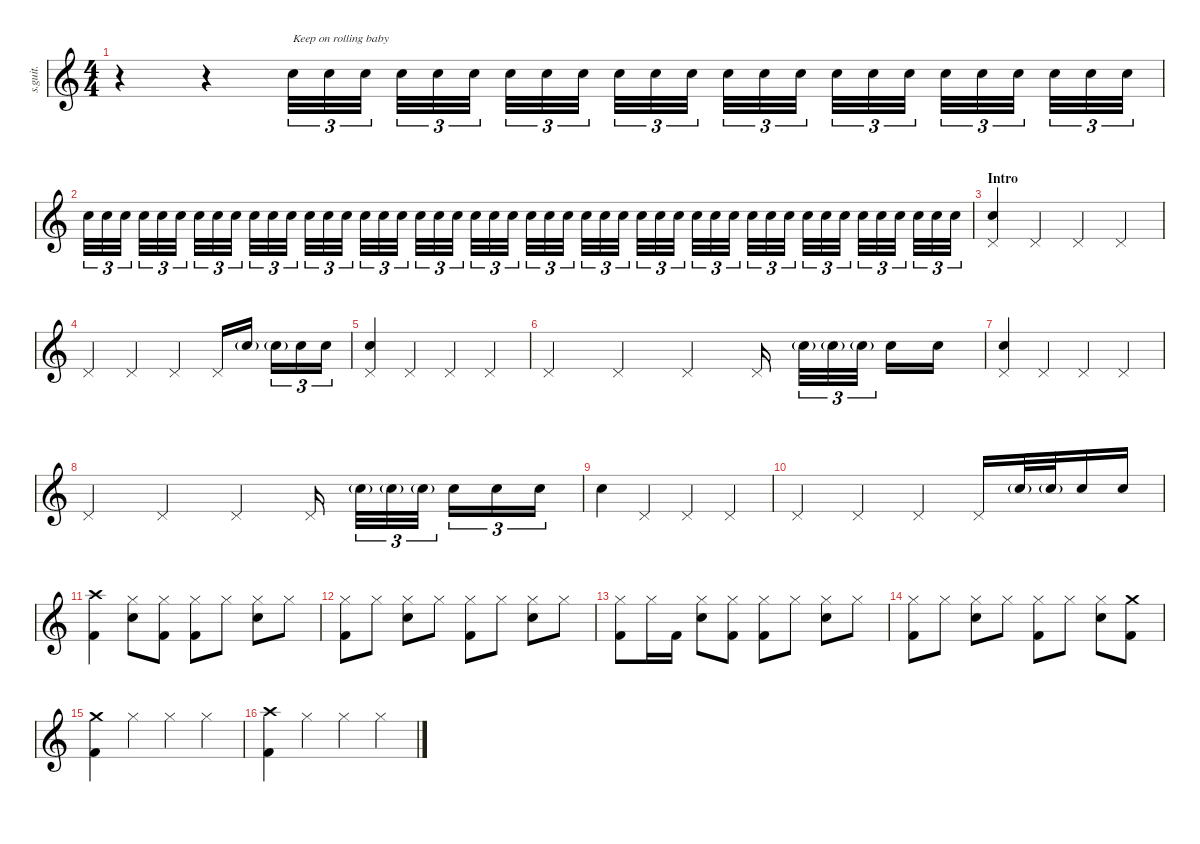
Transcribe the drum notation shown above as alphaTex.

\defaultSystemsLayout 4
\hideDynamics
\bracketExtendMode nobrackets
\track ("Lars Ulrich" "s.guit.") {instrument percussion}
\staff {score}
\articulation defaults
\ts (4 4)
\beaming (8 2 2 2 2)
\tempo (69 hide)
\clef g2
\ks c
r.4{dy ppp} r.4 "Snare (hit) 2".32{tu (3 2) txt "Keep on rolling baby" lyrics (0 "") lyrics (1 "") lyrics (2 "") lyrics (3 "") lyrics (4 "")} "Snare (hit) 2".32{tu (3 2) lyrics (0 "") lyrics (1 "") lyrics (2 "") lyrics (3 "") lyrics (4 "")} "Snare (hit) 2".32{tu (3 2) lyrics (0 "") lyrics (1 "") lyrics (2 "") lyrics (3 "") lyrics (4 "")} "Snare (hit) 2".32{tu (3 2) lyrics (0 "") lyrics (1 "") lyrics (2 "") lyrics (3 "") lyrics (4 "")} "Snare (hit) 2".32{tu (3 2) lyrics (0 "") lyrics (1 "") lyrics (2 "") lyrics (3 "") lyrics (4 "")} "Snare (hit) 2".32{tu (3 2) lyrics (0 "") lyrics (1 "") lyrics (2 "") lyrics (3 "") lyrics (4 "")} "Snare (hit) 2".32{tu (3 2) lyrics (0 "") lyrics (1 "") lyrics (2 "") lyrics (3 "") lyrics (4 "")} "Snare (hit) 2".32{tu (3 2) lyrics (0 "") lyrics (1 "") lyrics (2 "") lyrics (3 "") lyrics (4 "")} "Snare (hit) 2".32{tu (3 2) lyrics (0 "") lyrics (1 "") lyrics (2 "") lyrics (3 "") lyrics (4 "")} "Snare (hit) 2".32{tu (3 2) lyrics (0 "") lyrics (1 "") lyrics (2 "") lyrics (3 "") lyrics (4 "") dy pp} "Snare (hit) 2".32{tu (3 2) lyrics (0 "") lyrics (1 "") lyrics (2 "") lyrics (3 "") lyrics (4 "")} "Snare (hit) 2".32{tu (3 2) lyrics (0 "") lyrics (1 "") lyrics (2 "") lyrics (3 "") lyrics (4 "")} "Snare (hit) 2".32{tu (3 2) lyrics (0 "") lyrics (1 "") lyrics (2 "") lyrics (3 "") lyrics (4 "")} "Snare (hit) 2".32{tu (3 2) lyrics (0 "") lyrics (1 "") lyrics (2 "") lyrics (3 "") lyrics (4 "")} "Snare (hit) 2".32{tu (3 2) lyrics (0 "") lyrics (1 "") lyrics (2 "") lyrics (3 "") lyrics (4 "")} "Snare (hit) 2".32{tu (3 2) lyrics (0 "") lyrics (1 "") lyrics (2 "") lyrics (3 "") lyrics (4 "")} "Snare (hit) 2".32{tu (3 2) lyrics (0 "") lyrics (1 "") lyrics (2 "") lyrics (3 "") lyrics (4 "")} "Snare (hit) 2".32{tu (3 2) lyrics (0 "") lyrics (1 "") lyrics (2 "") lyrics (3 "") lyrics (4 "")} "Snare (hit) 2".32{tu (3 2) lyrics (0 "") lyrics (1 "") lyrics (2 "") lyrics (3 "") lyrics (4 "")} "Snare (hit) 2".32{tu (3 2) lyrics (0 "") lyrics (1 "") lyrics (2 "") lyrics (3 "") lyrics (4 "") dy p} "Snare (hit) 2".32{tu (3 2) lyrics (0 "") lyrics (1 "") lyrics (2 "") lyrics (3 "") lyrics (4 "")} "Snare (hit) 2".32{tu (3 2) lyrics (0 "") lyrics (1 "") lyrics (2 "") lyrics (3 "") lyrics (4 "")} "Snare (hit) 2".32{tu (3 2) lyrics (0 "") lyrics (1 "") lyrics (2 "") lyrics (3 "") lyrics (4 "")} "Snare (hit) 2".32{tu (3 2) lyrics (0 "") lyrics (1 "") lyrics (2 "") lyrics (3 "") lyrics (4 "")} |
"Snare (hit) 2".32{tu (3 2) lyrics (0 "") lyrics (1 "") lyrics (2 "") lyrics (3 "") lyrics (4 "")} "Snare (hit) 2".32{tu (3 2) lyrics (0 "") lyrics (1 "") lyrics (2 "") lyrics (3 "") lyrics (4 "")} "Snare (hit) 2".32{tu (3 2) lyrics (0 "") lyrics (1 "") lyrics (2 "") lyrics (3 "") lyrics (4 "")} "Snare (hit) 2".32{tu (3 2) lyrics (0 "") lyrics (1 "") lyrics (2 "") lyrics (3 "") lyrics (4 "")} "Snare (hit) 2".32{tu (3 2) lyrics (0 "") lyrics (1 "") lyrics (2 "") lyrics (3 "") lyrics (4 "")} "Snare (hit) 2".32{tu (3 2) lyrics (0 "") lyrics (1 "") lyrics (2 "") lyrics (3 "") lyrics (4 "")} "Snare (hit) 2".32{tu (3 2) lyrics (0 "") lyrics (1 "") lyrics (2 "") lyrics (3 "") lyrics (4 "")} "Snare (hit) 2".32{tu (3 2) lyrics (0 "") lyrics (1 "") lyrics (2 "") lyrics (3 "") lyrics (4 "") dy mp} "Snare (hit) 2".32{tu (3 2) lyrics (0 "") lyrics (1 "") lyrics (2 "") lyrics (3 "") lyrics (4 "")} "Snare (hit) 2".32{tu (3 2) lyrics (0 "") lyrics (1 "") lyrics (2 "") lyrics (3 "") lyrics (4 "")} "Snare (hit) 2".32{tu (3 2) lyrics (0 "") lyrics (1 "") lyrics (2 "") lyrics (3 "") lyrics (4 "")} "Snare (hit) 2".32{tu (3 2) lyrics (0 "") lyrics (1 "") lyrics (2 "") lyrics (3 "") lyrics (4 "")} "Snare (hit) 2".32{tu (3 2) lyrics (0 "") lyrics (1 "") lyrics (2 "") lyrics (3 "") lyrics (4 "")} "Snare (hit) 2".32{tu (3 2) lyrics (0 "") lyrics (1 "") lyrics (2 "") lyrics (3 "") lyrics (4 "")} "Snare (hit) 2".32{tu (3 2) lyrics (0 "") lyrics (1 "") lyrics (2 "") lyrics (3 "") lyrics (4 "")} "Snare (hit) 2".32{tu (3 2) lyrics (0 "") lyrics (1 "") lyrics (2 "") lyrics (3 "") lyrics (4 "")} "Snare (hit) 2".32{tu (3 2) lyrics (0 "") lyrics (1 "") lyrics (2 "") lyrics (3 "") lyrics (4 "")} "Snare (hit) 2".32{tu (3 2) lyrics (0 "") lyrics (1 "") lyrics (2 "") lyrics (3 "") lyrics (4 "")} "Snare (hit) 2".32{tu (3 2) lyrics (0 "") lyrics (1 "") lyrics (2 "") lyrics (3 "") lyrics (4 "")} "Snare (hit) 2".32{tu (3 2) lyrics (0 "") lyrics (1 "") lyrics (2 "") lyrics (3 "") lyrics (4 "")} "Snare (hit) 2".32{tu (3 2) lyrics (0 "") lyrics (1 "") lyrics (2 "") lyrics (3 "") lyrics (4 "")} "Snare (hit) 2".32{tu (3 2) lyrics (0 "") lyrics (1 "") lyrics (2 "") lyrics (3 "") lyrics (4 "") dy mf} "Snare (hit) 2".32{tu (3 2) lyrics (0 "") lyrics (1 "") lyrics (2 "") lyrics (3 "") lyrics (4 "")} "Snare (hit) 2".32{tu (3 2) lyrics (0 "") lyrics (1 "") lyrics (2 "") lyrics (3 "") lyrics (4 "")} "Snare (hit) 2".32{tu (3 2) lyrics (0 "") lyrics (1 "") lyrics (2 "") lyrics (3 "") lyrics (4 "")} "Snare (hit) 2".32{tu (3 2) lyrics (0 "") lyrics (1 "") lyrics (2 "") lyrics (3 "") lyrics (4 "")} "Snare (hit) 2".32{tu (3 2) lyrics (0 "") lyrics (1 "") lyrics (2 "") lyrics (3 "") lyrics (4 "")} "Snare (hit) 2".32{tu (3 2) lyrics (0 "") lyrics (1 "") lyrics (2 "") lyrics (3 "") lyrics (4 "")} "Snare (hit) 2".32{tu (3 2) lyrics (0 "") lyrics (1 "") lyrics (2 "") lyrics (3 "") lyrics (4 "")} "Snare (hit) 2".32{tu (3 2) lyrics (0 "") lyrics (1 "") lyrics (2 "") lyrics (3 "") lyrics (4 "")} "Snare (hit) 2".32{tu (3 2) lyrics (0 "") lyrics (1 "") lyrics (2 "") lyrics (3 "") lyrics (4 "")} "Snare (hit) 2".32{tu (3 2) lyrics (0 "") lyrics (1 "") lyrics (2 "") lyrics (3 "") lyrics (4 "")} "Snare (hit) 2".32{tu (3 2) lyrics (0 "") lyrics (1 "") lyrics (2 "") lyrics (3 "") lyrics (4 "")} "Snare (hit) 2".32{tu (3 2) lyrics (0 "") lyrics (1 "") lyrics (2 "") lyrics (3 "") lyrics (4 "") dy ff} "Snare (hit) 2".32{tu (3 2) lyrics (0 "") lyrics (1 "") lyrics (2 "") lyrics (3 "") lyrics (4 "")} "Snare (hit) 2".32{tu (3 2) lyrics (0 "") lyrics (1 "") lyrics (2 "") lyrics (3 "") lyrics (4 "")} "Snare (hit) 2".32{tu (3 2) lyrics (0 "") lyrics (1 "") lyrics (2 "") lyrics (3 "") lyrics (4 "")} "Snare (hit) 2".32{tu (3 2) lyrics (0 "") lyrics (1 "") lyrics (2 "") lyrics (3 "") lyrics (4 "")} "Snare (hit) 2".32{tu (3 2) lyrics (0 "") lyrics (1 "") lyrics (2 "") lyrics (3 "") lyrics (4 "")} "Snare (hit) 2".32{tu (3 2) lyrics (0 "") lyrics (1 "") lyrics (2 "") lyrics (3 "") lyrics (4 "")} "Snare (hit) 2".32{tu (3 2) lyrics (0 "") lyrics (1 "") lyrics (2 "") lyrics (3 "") lyrics (4 "")} "Snare (hit) 2".32{tu (3 2) lyrics (0 "") lyrics (1 "") lyrics (2 "") lyrics (3 "") lyrics (4 "")} "Snare (hit) 2".32{tu (3 2) lyrics (0 "") lyrics (1 "") lyrics (2 "") lyrics (3 "") lyrics (4 "")} "Snare (hit) 2".32{tu (3 2) lyrics (0 "") lyrics (1 "") lyrics (2 "") lyrics (3 "") lyrics (4 "")} "Snare (hit) 2".32{tu (3 2) lyrics (0 "") lyrics (1 "") lyrics (2 "") lyrics (3 "") lyrics (4 "")} "Snare (hit) 2".32{tu (3 2) lyrics (0 "") lyrics (1 "") lyrics (2 "") lyrics (3 "") lyrics (4 "")} "Snare (hit) 2".32{tu (3 2) lyrics (0 "") lyrics (1 "") lyrics (2 "") lyrics (3 "") lyrics (4 "")} "Snare (hit) 2".32{tu (3 2) lyrics (0 "") lyrics (1 "") lyrics (2 "") lyrics (3 "") lyrics (4 "")} |
\section ("" "Intro")
("Pedal Hi-Hat (hit)" "Snare (hit) 2").4{lyrics (0 "") lyrics (1 "") lyrics (2 "") lyrics (3 "") lyrics (4 "") dy p} "Pedal Hi-Hat (hit)".4{lyrics (0 "") lyrics (1 "") lyrics (2 "") lyrics (3 "") lyrics (4 "")} "Pedal Hi-Hat (hit)".4{lyrics (0 "") lyrics (1 "") lyrics (2 "") lyrics (3 "") lyrics (4 "")} "Pedal Hi-Hat (hit)".4{lyrics (0 "") lyrics (1 "") lyrics (2 "") lyrics (3 "") lyrics (4 "")} |
"Pedal Hi-Hat (hit)".4{lyrics (0 "") lyrics (1 "") lyrics (2 "") lyrics (3 "") lyrics (4 "")} "Pedal Hi-Hat (hit)".4{lyrics (0 "") lyrics (1 "") lyrics (2 "") lyrics (3 "") lyrics (4 "")} "Pedal Hi-Hat (hit)".4{lyrics (0 "") lyrics (1 "") lyrics (2 "") lyrics (3 "") lyrics (4 "")} "Pedal Hi-Hat (hit)".16{lyrics (0 "") lyrics (1 "") lyrics (2 "") lyrics (3 "") lyrics (4 "")} "Snare (hit) 2"{g}.16{lyrics (0 "") lyrics (1 "") lyrics (2 "") lyrics (3 "") lyrics (4 "") dy mp} "Snare (hit) 2"{g}.16{tu (3 2) lyrics (0 "") lyrics (1 "") lyrics (2 "") lyrics (3 "") lyrics (4 "")} "Snare (hit) 2".16{tu (3 2) lyrics (0 "") lyrics (1 "") lyrics (2 "") lyrics (3 "") lyrics (4 "") dy p} "Snare (hit) 2".16{tu (3 2) lyrics (0 "") lyrics (1 "") lyrics (2 "") lyrics (3 "") lyrics (4 "")} |
("Pedal Hi-Hat (hit)" "Snare (hit) 2").4{lyrics (0 "") lyrics (1 "") lyrics (2 "") lyrics (3 "") lyrics (4 "")} "Pedal Hi-Hat (hit)".4{lyrics (0 "") lyrics (1 "") lyrics (2 "") lyrics (3 "") lyrics (4 "")} "Pedal Hi-Hat (hit)".4{lyrics (0 "") lyrics (1 "") lyrics (2 "") lyrics (3 "") lyrics (4 "")} "Pedal Hi-Hat (hit)".4{lyrics (0 "") lyrics (1 "") lyrics (2 "") lyrics (3 "") lyrics (4 "")} |
"Pedal Hi-Hat (hit)".4{lyrics (0 "") lyrics (1 "") lyrics (2 "") lyrics (3 "") lyrics (4 "")} "Pedal Hi-Hat (hit)".4{lyrics (0 "") lyrics (1 "") lyrics (2 "") lyrics (3 "") lyrics (4 "")} "Pedal Hi-Hat (hit)".4{lyrics (0 "") lyrics (1 "") lyrics (2 "") lyrics (3 "") lyrics (4 "")} "Pedal Hi-Hat (hit)".16{lyrics (0 "") lyrics (1 "") lyrics (2 "") lyrics (3 "") lyrics (4 "")} "Snare (hit) 2"{g}.32{tu (3 2) lyrics (0 "") lyrics (1 "") lyrics (2 "") lyrics (3 "") lyrics (4 "") dy mp} "Snare (hit) 2"{g}.32{tu (3 2) lyrics (0 "") lyrics (1 "") lyrics (2 "") lyrics (3 "") lyrics (4 "")} "Snare (hit) 2"{g}.32{tu (3 2) lyrics (0 "") lyrics (1 "") lyrics (2 "") lyrics (3 "") lyrics (4 "")} "Snare (hit) 2".16{lyrics (0 "") lyrics (1 "") lyrics (2 "") lyrics (3 "") lyrics (4 "") dy p} "Snare (hit) 2".16{lyrics (0 "") lyrics (1 "") lyrics (2 "") lyrics (3 "") lyrics (4 "")} |
("Pedal Hi-Hat (hit)" "Snare (hit) 2").4{lyrics (0 "") lyrics (1 "") lyrics (2 "") lyrics (3 "") lyrics (4 "")} "Pedal Hi-Hat (hit)".4{lyrics (0 "") lyrics (1 "") lyrics (2 "") lyrics (3 "") lyrics (4 "")} "Pedal Hi-Hat (hit)".4{lyrics (0 "") lyrics (1 "") lyrics (2 "") lyrics (3 "") lyrics (4 "")} "Pedal Hi-Hat (hit)".4{lyrics (0 "") lyrics (1 "") lyrics (2 "") lyrics (3 "") lyrics (4 "")} |
"Pedal Hi-Hat (hit)".4{lyrics (0 "") lyrics (1 "") lyrics (2 "") lyrics (3 "") lyrics (4 "")} "Pedal Hi-Hat (hit)".4{lyrics (0 "") lyrics (1 "") lyrics (2 "") lyrics (3 "") lyrics (4 "")} "Pedal Hi-Hat (hit)".4{lyrics (0 "") lyrics (1 "") lyrics (2 "") lyrics (3 "") lyrics (4 "")} "Pedal Hi-Hat (hit)".16{lyrics (0 "") lyrics (1 "") lyrics (2 "") lyrics (3 "") lyrics (4 "")} "Snare (hit) 2"{g}.32{tu (3 2) lyrics (0 "") lyrics (1 "") lyrics (2 "") lyrics (3 "") lyrics (4 "") dy mp} "Snare (hit) 2"{g}.32{tu (3 2) lyrics (0 "") lyrics (1 "") lyrics (2 "") lyrics (3 "") lyrics (4 "")} "Snare (hit) 2"{g}.32{tu (3 2) lyrics (0 "") lyrics (1 "") lyrics (2 "") lyrics (3 "") lyrics (4 "")} "Snare (hit) 2".16{tu (3 2) lyrics (0 "") lyrics (1 "") lyrics (2 "") lyrics (3 "") lyrics (4 "") dy p} "Snare (hit) 2".16{tu (3 2) lyrics (0 "") lyrics (1 "") lyrics (2 "") lyrics (3 "") lyrics (4 "")} "Snare (hit) 2".16{tu (3 2) lyrics (0 "") lyrics (1 "") lyrics (2 "") lyrics (3 "") lyrics (4 "")} |
"Snare (hit) 2".4{lyrics (0 "") lyrics (1 "") lyrics (2 "") lyrics (3 "") lyrics (4 "")} "Pedal Hi-Hat (hit)".4{lyrics (0 "") lyrics (1 "") lyrics (2 "") lyrics (3 "") lyrics (4 "")} "Pedal Hi-Hat (hit)".4{lyrics (0 "") lyrics (1 "") lyrics (2 "") lyrics (3 "") lyrics (4 "")} "Pedal Hi-Hat (hit)".4{lyrics (0 "") lyrics (1 "") lyrics (2 "") lyrics (3 "") lyrics (4 "")} |
"Pedal Hi-Hat (hit)".4{lyrics (0 "") lyrics (1 "") lyrics (2 "") lyrics (3 "") lyrics (4 "")} "Pedal Hi-Hat (hit)".4{lyrics (0 "") lyrics (1 "") lyrics (2 "") lyrics (3 "") lyrics (4 "")} "Pedal Hi-Hat (hit)".4{lyrics (0 "") lyrics (1 "") lyrics (2 "") lyrics (3 "") lyrics (4 "")} "Pedal Hi-Hat (hit)".16{lyrics (0 "") lyrics (1 "") lyrics (2 "") lyrics (3 "") lyrics (4 "")} "Snare (hit) 2"{g}.32{lyrics (0 "") lyrics (1 "") lyrics (2 "") lyrics (3 "") lyrics (4 "") dy mp} "Snare (hit) 2"{g}.32{lyrics (0 "") lyrics (1 "") lyrics (2 "") lyrics (3 "") lyrics (4 "")} "Snare (hit) 2".16{lyrics (0 "") lyrics (1 "") lyrics (2 "") lyrics (3 "") lyrics (4 "") dy p} "Snare (hit) 2".16{lyrics (0 "") lyrics (1 "") lyrics (2 "") lyrics (3 "") lyrics (4 "")} |
("Crash high (hit)" "Kick (hit) 2").4{lyrics (0 "") lyrics (1 "") lyrics (2 "") lyrics (3 "") lyrics (4 "") dy fff} ("Hi-Hat (closed)" "Snare (hit) 2").8{lyrics (0 "") lyrics (1 "") lyrics (2 "") lyrics (3 "") lyrics (4 "") dy f} ("Hi-Hat (closed)" "Kick (hit) 2").8{lyrics (0 "") lyrics (1 "") lyrics (2 "") lyrics (3 "") lyrics (4 "")} ("Hi-Hat (closed)" "Kick (hit) 2").8{lyrics (0 "") lyrics (1 "") lyrics (2 "") lyrics (3 "") lyrics (4 "")} "Hi-Hat (closed)".8{lyrics (0 "") lyrics (1 "") lyrics (2 "") lyrics (3 "") lyrics (4 "")} ("Hi-Hat (closed)" "Snare (hit) 2").8{lyrics (0 "") lyrics (1 "") lyrics (2 "") lyrics (3 "") lyrics (4 "")} "Hi-Hat (closed)".8{lyrics (0 "") lyrics (1 "") lyrics (2 "") lyrics (3 "") lyrics (4 "")} |
("Hi-Hat (closed)" "Kick (hit) 2").8{lyrics (0 "") lyrics (1 "") lyrics (2 "") lyrics (3 "") lyrics (4 "")} "Hi-Hat (closed)".8{lyrics (0 "") lyrics (1 "") lyrics (2 "") lyrics (3 "") lyrics (4 "")} ("Hi-Hat (closed)" "Snare (hit) 2").8{lyrics (0 "") lyrics (1 "") lyrics (2 "") lyrics (3 "") lyrics (4 "")} "Hi-Hat (closed)".8{lyrics (0 "") lyrics (1 "") lyrics (2 "") lyrics (3 "") lyrics (4 "")} ("Hi-Hat (closed)" "Kick (hit) 2").8{lyrics (0 "") lyrics (1 "") lyrics (2 "") lyrics (3 "") lyrics (4 "")} "Hi-Hat (closed)".8{lyrics (0 "") lyrics (1 "") lyrics (2 "") lyrics (3 "") lyrics (4 "")} ("Hi-Hat (closed)" "Snare (hit) 2").8{lyrics (0 "") lyrics (1 "") lyrics (2 "") lyrics (3 "") lyrics (4 "")} "Hi-Hat (closed)".8{lyrics (0 "") lyrics (1 "") lyrics (2 "") lyrics (3 "") lyrics (4 "")} |
("Hi-Hat (closed)" "Kick (hit) 2").8{lyrics (0 "") lyrics (1 "") lyrics (2 "") lyrics (3 "") lyrics (4 "")} "Hi-Hat (closed)".16{lyrics (0 "") lyrics (1 "") lyrics (2 "") lyrics (3 "") lyrics (4 "")} "Kick (hit) 2".16{lyrics (0 "") lyrics (1 "") lyrics (2 "") lyrics (3 "") lyrics (4 "") dy fff} ("Hi-Hat (closed)" "Snare (hit) 2").8{lyrics (0 "") lyrics (1 "") lyrics (2 "") lyrics (3 "") lyrics (4 "") dy f} ("Hi-Hat (closed)" "Kick (hit) 2").8{lyrics (0 "") lyrics (1 "") lyrics (2 "") lyrics (3 "") lyrics (4 "")} ("Hi-Hat (closed)" "Kick (hit) 2").8{lyrics (0 "") lyrics (1 "") lyrics (2 "") lyrics (3 "") lyrics (4 "")} "Hi-Hat (closed)".8{lyrics (0 "") lyrics (1 "") lyrics (2 "") lyrics (3 "") lyrics (4 "")} ("Hi-Hat (closed)" "Snare (hit) 2").8{lyrics (0 "") lyrics (1 "") lyrics (2 "") lyrics (3 "") lyrics (4 "")} "Hi-Hat (closed)".8{lyrics (0 "") lyrics (1 "") lyrics (2 "") lyrics (3 "") lyrics (4 "")} |
("Hi-Hat (closed)" "Kick (hit) 2").8{lyrics (0 "") lyrics (1 "") lyrics (2 "") lyrics (3 "") lyrics (4 "")} "Hi-Hat (closed)".8{lyrics (0 "") lyrics (1 "") lyrics (2 "") lyrics (3 "") lyrics (4 "")} ("Hi-Hat (closed)" "Snare (hit) 2").8{lyrics (0 "") lyrics (1 "") lyrics (2 "") lyrics (3 "") lyrics (4 "")} "Hi-Hat (closed)".8{lyrics (0 "") lyrics (1 "") lyrics (2 "") lyrics (3 "") lyrics (4 "")} ("Hi-Hat (closed)" "Kick (hit) 2").8{lyrics (0 "") lyrics (1 "") lyrics (2 "") lyrics (3 "") lyrics (4 "")} "Hi-Hat (closed)".8{lyrics (0 "") lyrics (1 "") lyrics (2 "") lyrics (3 "") lyrics (4 "")} ("Hi-Hat (closed)" "Snare (hit) 2").8{lyrics (0 "") lyrics (1 "") lyrics (2 "") lyrics (3 "") lyrics (4 "")} ("Crash medium (hit)" "Kick (hit) 2").8{lyrics (0 "") lyrics (1 "") lyrics (2 "") lyrics (3 "") lyrics (4 "")} |
("Crash medium (hit)" "Kick (hit) 2").4{lyrics (0 "") lyrics (1 "") lyrics (2 "") lyrics (3 "") lyrics (4 "")} "Hi-Hat (closed)".4{lyrics (0 "") lyrics (1 "") lyrics (2 "") lyrics (3 "") lyrics (4 "") dy p} "Hi-Hat (closed)".4{lyrics (0 "") lyrics (1 "") lyrics (2 "") lyrics (3 "") lyrics (4 "")} "Hi-Hat (closed)".4{lyrics (0 "") lyrics (1 "") lyrics (2 "") lyrics (3 "") lyrics (4 "")} |
("Crash high (hit)" "Kick (hit) 2").4{lyrics (0 "") lyrics (1 "") lyrics (2 "") lyrics (3 "") lyrics (4 "") dy f} "Hi-Hat (closed)".4{lyrics (0 "") lyrics (1 "") lyrics (2 "") lyrics (3 "") lyrics (4 "") dy p} "Hi-Hat (closed)".4{lyrics (0 "") lyrics (1 "") lyrics (2 "") lyrics (3 "") lyrics (4 "")} "Hi-Hat (closed)".4{lyrics (0 "") lyrics (1 "") lyrics (2 "") lyrics (3 "") lyrics (4 "")}
